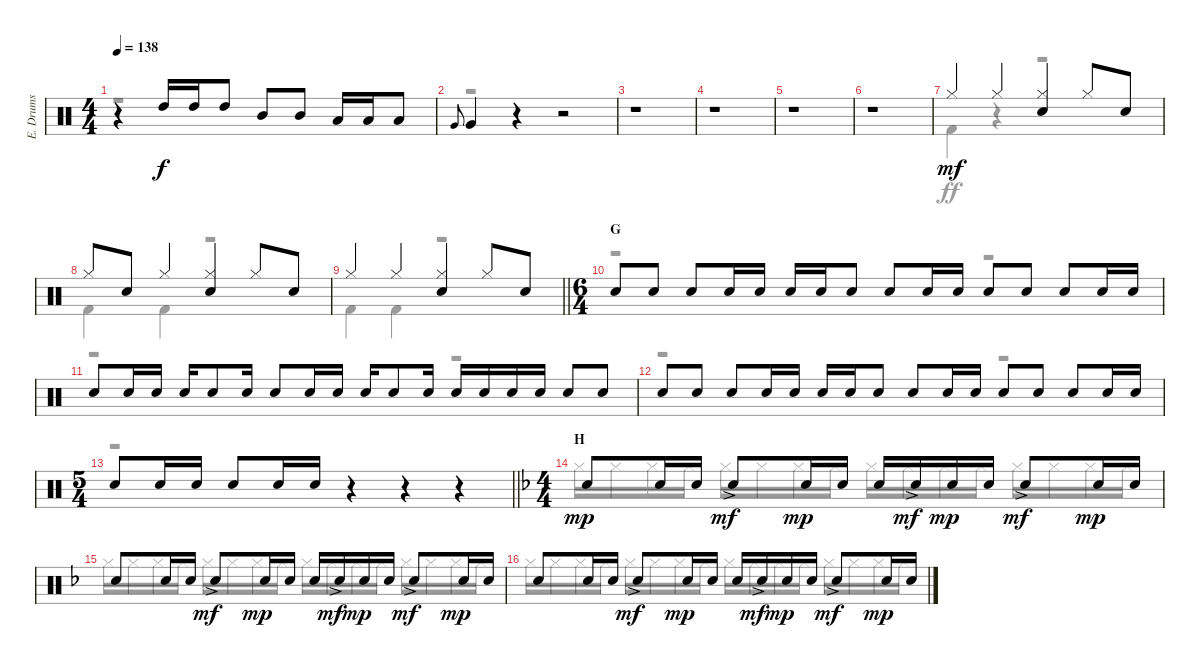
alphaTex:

\track ("E. Drums" "E. Drums") {instrument percussion}
\staff {score}
\articulation defaults
\voice
\ts (4 4)
\tempo 138
\clef neutral
\ks c
r.4{dy mf} "High Tom (hit)".16{dy f} "High Tom (hit)".16 "High Tom (hit)".8 "Mid Tom (hit)".8 "Mid Tom (hit)".8 "Low Tom (hit)".16 "Low Tom (hit)".16 "Low Tom (hit)".8 |
"Very Low Tom (hit)".8{gr onbeat} "Very Low Tom (hit)".4 r.4 r.2 |
r.1 |
r.1 |
r.1 |
r.1 |
"Hi-Hat (closed)".4{dy mf} "Hi-Hat (closed)".4 ("Hi-Hat (closed)" "Electric Snare (hit)").4 "Hi-Hat (closed)".8 "Electric Snare (hit)".8 |
"Hi-Hat (closed)".8 "Electric Snare (hit)".8 "Hi-Hat (closed)".4 ("Hi-Hat (closed)" "Snare (hit) 2").4 "Hi-Hat (closed)".8 "Electric Snare (hit)".8 |
\barLineRight lightlight "Hi-Hat (closed)".4 "Hi-Hat (closed)".4
("Hi-Hat (closed)" "Electric Snare (hit)").4 "Hi-Hat (closed)".8 "Electric Snare (hit)".8 |
\ts (6 4)
\section ("" "G")
"Electric Snare (hit)".8 "Electric Snare (hit)".8 "Electric Snare (hit)".8 "Electric Snare (hit)".16 "Electric Snare (hit)".16 "Electric Snare (hit)".16 "Electric Snare (hit)".16 "Electric Snare (hit)".8 "Electric Snare (hit)".8 "Electric Snare (hit)".16 "Electric Snare (hit)".16 "Electric Snare (hit)".8 "Electric Snare (hit)".8 "Electric Snare (hit)".8 "Electric Snare (hit)".16 "Electric Snare (hit)".16 |
"Electric Snare (hit)".8 "Electric Snare (hit)".16 "Electric Snare (hit)".16 "Electric Snare (hit)".16 "Electric Snare (hit)".8 "Electric Snare (hit)".16 "Electric Snare (hit)".8 "Electric Snare (hit)".16 "Electric Snare (hit)".16 "Electric Snare (hit)".16 "Electric Snare (hit)".8 "Electric Snare (hit)".16 "Electric Snare (hit)".16 "Electric Snare (hit)".16 "Electric Snare (hit)".16 "Electric Snare (hit)".16 "Electric Snare (hit)".8 "Electric Snare (hit)".8 |
"Electric Snare (hit)".8 "Electric Snare (hit)".8 "Electric Snare (hit)".8 "Electric Snare (hit)".16 "Electric Snare (hit)".16 "Electric Snare (hit)".16 "Electric Snare (hit)".16 "Electric Snare (hit)".8 "Electric Snare (hit)".8 "Electric Snare (hit)".16 "Electric Snare (hit)".16 "Electric Snare (hit)".8 "Electric Snare (hit)".8 "Electric Snare (hit)".8 "Electric Snare (hit)".16 "Electric Snare (hit)".16 |
\ts (5 4)
\barLineRight lightlight "Electric Snare (hit)".8 "Electric Snare (hit)".16 "Electric Snare (hit)".16 "Electric Snare (hit)".8 "Electric Snare (hit)".16 "Electric Snare (hit)".16
r.4 r.4 r.4 |
\ts (4 4)
\section ("" "H")
\ks f "Electric Snare (hit)".8{dy mp} "Electric Snare (hit)".16 "Electric Snare (hit)".16 "Electric Snare (hit)"{ac}.8{dy mf} "Electric Snare (hit)".16{dy mp} "Electric Snare (hit)".16 "Electric Snare (hit)".16 "Electric Snare (hit)"{ac}.16{dy mf} "Electric Snare (hit)".16{dy mp} "Electric Snare (hit)".16 "Electric Snare (hit)"{ac}.8{dy mf} "Electric Snare (hit)".16{dy mp} "Electric Snare (hit)".16
|
"Electric Snare (hit)".8 "Electric Snare (hit)".16 "Electric Snare (hit)".16 "Electric Snare (hit)"{ac}.8{dy mf} "Electric Snare (hit)".16{dy mp} "Electric Snare (hit)".16 "Electric Snare (hit)".16 "Electric Snare (hit)"{ac}.16{dy mf} "Electric Snare (hit)".16{dy mp} "Electric Snare (hit)".16 "Electric Snare (hit)"{ac}.8{dy mf} "Electric Snare (hit)".16{dy mp} "Electric Snare (hit)".16 |
"Electric Snare (hit)".8 "Electric Snare (hit)".16 "Electric Snare (hit)".16 "Electric Snare (hit)"{ac}.8{dy mf} "Electric Snare (hit)".16{dy mp} "Electric Snare (hit)".16 "Electric Snare (hit)".16 "Electric Snare (hit)"{ac}.16{dy mf} "Electric Snare (hit)".16{dy mp} "Electric Snare (hit)".16 "Electric Snare (hit)"{ac}.8{dy mf} "Electric Snare (hit)".16{dy mp} "Electric Snare (hit)".16
\voice
\clef neutral
\ottava regular
\simile none
\ks c
r.1{dy f} |
r.1 |
r.1 |
r.1 |
r.1 |
r.1 |
"Kick (hit) 2".4{dy ff} r.4 r.2 |
"Kick (hit) 2".4 "Kick (hit) 2".4 r.2 |
\barLineRight lightlight "Kick (hit) 2".4 "Kick (hit) 2".4
r.2 |
r.1 r.2 |
r.1 r.2 |
r.1 r.2 |
\barLineRight lightlight
r.1 r.4 |
\ks f "Hi-Hat (closed)".16{dy mp} "Hi-Hat (closed)".16 "Hi-Hat (closed)".16 "Hi-Hat (closed)".16 "Hi-Hat (closed)".16 "Hi-Hat (closed)".16 "Hi-Hat (closed)".16 "Hi-Hat (closed)".16 "Hi-Hat (closed)".16 "Hi-Hat (closed)".16 "Hi-Hat (closed)".16 "Hi-Hat (closed)".16 "Hi-Hat (closed)".16 "Hi-Hat (closed)".16 "Hi-Hat (closed)".16 "Hi-Hat (closed)".16
|
"Hi-Hat (closed)".16 "Hi-Hat (closed)".16 "Hi-Hat (closed)".16 "Hi-Hat (closed)".16 "Hi-Hat (closed)".16 "Hi-Hat (closed)".16 "Hi-Hat (closed)".16 "Hi-Hat (closed)".16 "Hi-Hat (closed)".16 "Hi-Hat (closed)".16 "Hi-Hat (closed)".16 "Hi-Hat (closed)".16 "Hi-Hat (closed)".16 "Hi-Hat (closed)".16 "Hi-Hat (closed)".16 "Hi-Hat (closed)".16 |
"Hi-Hat (closed)".16 "Hi-Hat (closed)".16 "Hi-Hat (closed)".16 "Hi-Hat (closed)".16 "Hi-Hat (closed)".16 "Hi-Hat (closed)".16 "Hi-Hat (closed)".16 "Hi-Hat (closed)".16 "Hi-Hat (closed)".16 "Hi-Hat (closed)".16 "Hi-Hat (closed)".16 "Hi-Hat (closed)".16 "Hi-Hat (closed)".16 "Hi-Hat (closed)".16 "Hi-Hat (closed)".16 "Hi-Hat (closed)".16
